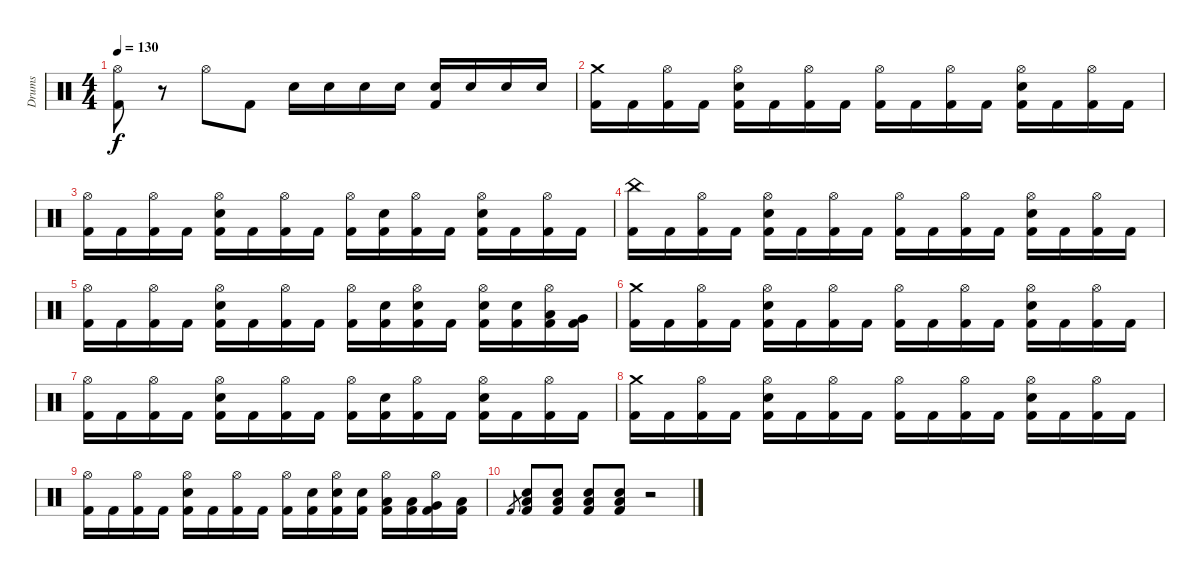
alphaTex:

\track ("Drums" "Drums") {instrument percussion}
\staff {score}
\articulation defaults
\ts (4 4)
\tempo 130
\clef neutral
\ks c
("Hi-Hat (open)" "Kick (hit) 2").8{dy f} r.8 "Hi-Hat (open)".8 "Kick (hit) 2".8 "Electric Snare (hit)".16 "Electric Snare (hit)".16 "Electric Snare (hit)".16 "Electric Snare (hit)".16 ("Electric Snare (hit)" "Kick (hit) 2").16 "Electric Snare (hit)".16 "Electric Snare (hit)".16 "Electric Snare (hit)".16 |
("Crash medium (hit)" "Kick (hit) 2").16 "Kick (hit) 2".16 ("Hi-Hat (open)" "Kick (hit) 2").16 "Kick (hit) 2".16 ("Hi-Hat (open)" "Kick (hit) 2" "Electric Snare (hit)").16 "Kick (hit) 2".16 ("Hi-Hat (open)" "Kick (hit) 2").16 "Kick (hit) 2".16 ("Hi-Hat (open)" "Kick (hit) 2").16 "Kick (hit) 2".16 ("Hi-Hat (open)" "Kick (hit) 2").16 "Kick (hit) 2".16 ("Hi-Hat (open)" "Kick (hit) 2" "Electric Snare (hit)").16 "Kick (hit) 2".16 ("Hi-Hat (open)" "Kick (hit) 2").16 "Kick (hit) 2".16 |
("Hi-Hat (open)" "Kick (hit) 2").16 "Kick (hit) 2".16 ("Hi-Hat (open)" "Kick (hit) 2").16 "Kick (hit) 2".16 ("Hi-Hat (open)" "Kick (hit) 2" "Electric Snare (hit)").16 "Kick (hit) 2".16 ("Hi-Hat (open)" "Kick (hit) 2").16 "Kick (hit) 2".16 ("Hi-Hat (open)" "Kick (hit) 2").16 ("Kick (hit) 2" "Electric Snare (hit)").16 ("Hi-Hat (open)" "Kick (hit) 2").16 "Kick (hit) 2".16 ("Hi-Hat (open)" "Kick (hit) 2" "Electric Snare (hit)").16 "Kick (hit) 2".16 ("Hi-Hat (open)" "Kick (hit) 2").16 "Kick (hit) 2".16 |
("China (hit)" "Kick (hit) 2").16 "Kick (hit) 2".16 ("Hi-Hat (open)" "Kick (hit) 2").16 "Kick (hit) 2".16 ("Hi-Hat (open)" "Kick (hit) 2" "Electric Snare (hit)").16 "Kick (hit) 2".16 ("Hi-Hat (open)" "Kick (hit) 2").16 "Kick (hit) 2".16 ("Hi-Hat (open)" "Kick (hit) 2").16 "Kick (hit) 2".16 ("Hi-Hat (open)" "Kick (hit) 2").16 "Kick (hit) 2".16 ("Hi-Hat (open)" "Kick (hit) 2" "Electric Snare (hit)").16 "Kick (hit) 2".16 ("Hi-Hat (open)" "Kick (hit) 2").16 "Kick (hit) 2".16 |
("Hi-Hat (open)" "Kick (hit) 2").16 "Kick (hit) 2".16 ("Hi-Hat (open)" "Kick (hit) 2").16 "Kick (hit) 2".16 ("Hi-Hat (open)" "Kick (hit) 2" "Electric Snare (hit)").16 "Kick (hit) 2".16 ("Hi-Hat (open)" "Kick (hit) 2").16 "Kick (hit) 2".16 ("Hi-Hat (open)" "Kick (hit) 2").16 ("Kick (hit) 2" "Electric Snare (hit)").16 ("Hi-Hat (open)" "Kick (hit) 2" "Electric Snare (hit)").16 "Kick (hit) 2".16 ("Hi-Hat (open)" "Kick (hit) 2" "Electric Snare (hit)").16 ("Kick (hit) 2" "Electric Snare (hit)").16 ("Hi-Hat (open)" "Kick (hit) 2" "Low Tom (hit)").16 ("Kick (hit) 2" "Very Low Tom (hit)").16 |
("Crash medium (hit)" "Kick (hit) 2").16 "Kick (hit) 2".16 ("Hi-Hat (open)" "Kick (hit) 2").16 "Kick (hit) 2".16 ("Hi-Hat (open)" "Kick (hit) 2" "Electric Snare (hit)").16 "Kick (hit) 2".16 ("Hi-Hat (open)" "Kick (hit) 2").16 "Kick (hit) 2".16 ("Hi-Hat (open)" "Kick (hit) 2").16 "Kick (hit) 2".16 ("Hi-Hat (open)" "Kick (hit) 2").16 "Kick (hit) 2".16 ("Hi-Hat (open)" "Kick (hit) 2" "Electric Snare (hit)").16 "Kick (hit) 2".16 ("Hi-Hat (open)" "Kick (hit) 2").16 "Kick (hit) 2".16 |
("Hi-Hat (open)" "Kick (hit) 2").16 "Kick (hit) 2".16 ("Hi-Hat (open)" "Kick (hit) 2").16 "Kick (hit) 2".16 ("Hi-Hat (open)" "Kick (hit) 2" "Electric Snare (hit)").16 "Kick (hit) 2".16 ("Hi-Hat (open)" "Kick (hit) 2").16 "Kick (hit) 2".16 ("Hi-Hat (open)" "Kick (hit) 2").16 ("Kick (hit) 2" "Electric Snare (hit)").16 ("Hi-Hat (open)" "Kick (hit) 2").16 "Kick (hit) 2".16 ("Hi-Hat (open)" "Kick (hit) 2" "Electric Snare (hit)").16 "Kick (hit) 2".16 ("Hi-Hat (open)" "Kick (hit) 2").16 "Kick (hit) 2".16 |
("Crash medium (hit)" "Kick (hit) 2").16 "Kick (hit) 2".16 ("Hi-Hat (open)" "Kick (hit) 2").16 "Kick (hit) 2".16 ("Hi-Hat (open)" "Kick (hit) 2" "Electric Snare (hit)").16 "Kick (hit) 2".16 ("Hi-Hat (open)" "Kick (hit) 2").16 "Kick (hit) 2".16 ("Hi-Hat (open)" "Kick (hit) 2").16 "Kick (hit) 2".16 ("Hi-Hat (open)" "Kick (hit) 2").16 "Kick (hit) 2".16 ("Hi-Hat (open)" "Kick (hit) 2" "Electric Snare (hit)").16 "Kick (hit) 2".16 ("Hi-Hat (open)" "Kick (hit) 2").16 "Kick (hit) 2".16 |
("Hi-Hat (open)" "Kick (hit) 2").16 "Kick (hit) 2".16 ("Hi-Hat (open)" "Kick (hit) 2").16 "Kick (hit) 2".16 ("Hi-Hat (open)" "Kick (hit) 2" "Electric Snare (hit)").16 "Kick (hit) 2".16 ("Hi-Hat (open)" "Kick (hit) 2").16 "Kick (hit) 2".16 ("Hi-Hat (open)" "Kick (hit) 2").16 ("Kick (hit) 2" "Electric Snare (hit)").16 ("Hi-Hat (open)" "Kick (hit) 2" "Electric Snare (hit)").16 ("Kick (hit) 2" "Electric Snare (hit)").16 ("Hi-Hat (open)" "Kick (hit) 2" "Low Tom (hit)").16 ("Kick (hit) 2" "Low Tom (hit)").16 ("Hi-Hat (open)" "Kick (hit) 2" "Very Low Tom (hit)").16 ("Kick (hit) 2" "Low Floor Tom (hit)").16 |
"Kick (hit) 2".8{gr} ("Low Floor Tom (hit)" "Electric Snare (hit)" "Kick (hit) 2").8 ("Low Floor Tom (hit)" "Electric Snare (hit)" "Kick (hit) 2").8 ("Low Floor Tom (hit)" "Electric Snare (hit)" "Kick (hit) 2").8 ("Low Floor Tom (hit)" "Electric Snare (hit)" "Kick (hit) 2").8 r.2
